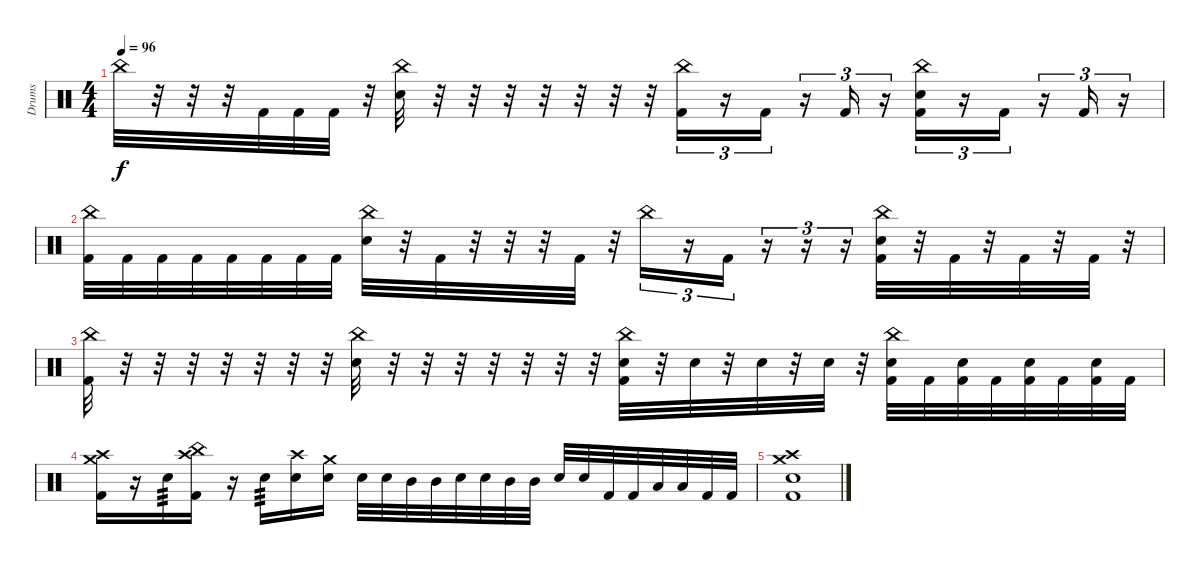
\track ("Drums" "Drums") {instrument percussion}
\staff {score}
\articulation defaults
\ts (4 4)
\tempo 96
\clef neutral
\ks c "China (hit)".32{dy f}
r.32 r.32 r.32 "Kick (hit) 2".32 "Kick (hit) 2".32 "Kick (hit) 2".32 r.32 ("China (hit)" "Snare (hit) 2").32 r.32 r.32 r.32 r.32 r.32 r.32 r.32 ("China (hit)" "Kick (hit) 2").16{tu (3 2)} r.16{tu (3 2)} "Kick (hit) 2".16{tu (3 2)} r.16{tu (3 2)} "Kick (hit) 2".16{tu (3 2)} r.16{tu (3 2)} ("China (hit)" "Snare (hit) 2" "Kick (hit) 2").16{tu (3 2)} r.16{tu (3 2)} "Kick (hit) 2".16{tu (3 2)} r.16{tu (3 2)} "Kick (hit) 2".16{tu (3 2)} r.16{tu (3 2)} |
("China (hit)" "Kick (hit) 2").32 "Kick (hit) 2".32 "Kick (hit) 2".32 "Kick (hit) 2".32 "Kick (hit) 2".32 "Kick (hit) 2".32 "Kick (hit) 2".32 "Kick (hit) 2".32 ("China (hit)" "Snare (hit) 2").32 r.32 "Kick (hit) 2".32 r.32 r.32 r.32 "Kick (hit) 2".32 r.32 "China (hit)".16{tu (3 2)} r.16{tu (3 2)} "Kick (hit) 2".16{tu (3 2)} r.16{tu (3 2)} r.16{tu (3 2)} r.16{tu (3 2)} ("China (hit)" "Snare (hit) 2" "Kick (hit) 2").32 r.32 "Kick (hit) 2".32 r.32 "Kick (hit) 2".32 r.32 "Kick (hit) 2".32 r.32 |
("China (hit)" "Kick (hit) 2").32 r.32 r.32 r.32 r.32 r.32 r.32 r.32 ("China (hit)" "Snare (hit) 2").32 r.32 r.32 r.32 r.32 r.32 r.32 r.32 ("China (hit)" "Snare (hit) 2" "Kick (hit) 2").32 r.32 "Snare (hit) 2".32 r.32 "Snare (hit) 2".32 r.32 "Snare (hit) 2".32 r.32 ("China (hit)" "Snare (hit) 2" "Kick (hit) 2").32 "Kick (hit) 2".32 ("Snare (hit) 2" "Kick (hit) 2").32 "Kick (hit) 2".32 ("Snare (hit) 2" "Kick (hit) 2").32 "Kick (hit) 2".32 ("Snare (hit) 2" "Kick (hit) 2").32 "Kick (hit) 2".32 |
("Crash medium (hit)" "Crash high (hit)" "Kick (hit) 2").16 r.16 "Snare (hit) 2".16{tp 3} ("China (hit)" "Crash high (hit)" "Kick (hit) 2").16 r.16 "Snare (hit) 2".16{tp 3} ("Crash high (hit)" "Snare (hit) 2").16 ("Crash medium (hit)" "Snare (hit) 2").16 "Snare (hit) 2".32 "Snare (hit) 2".32 "Mid Tom (hit)".32 "Mid Tom (hit)".32 "Snare (hit) 2".32 "Snare (hit) 2".32 "Mid Tom (hit)".32 "Mid Tom (hit)".32 "Snare (hit) 2".32 "Snare (hit) 2".32 "Kick (hit) 2".32 "Kick (hit) 2".32 "Low Tom (hit)".32 "Low Tom (hit)".32 "Kick (hit) 2".32 "Kick (hit) 2".32 |
("Crash high (hit)" "Crash medium (hit)" "Snare (hit) 2" "Kick (hit) 2").1
